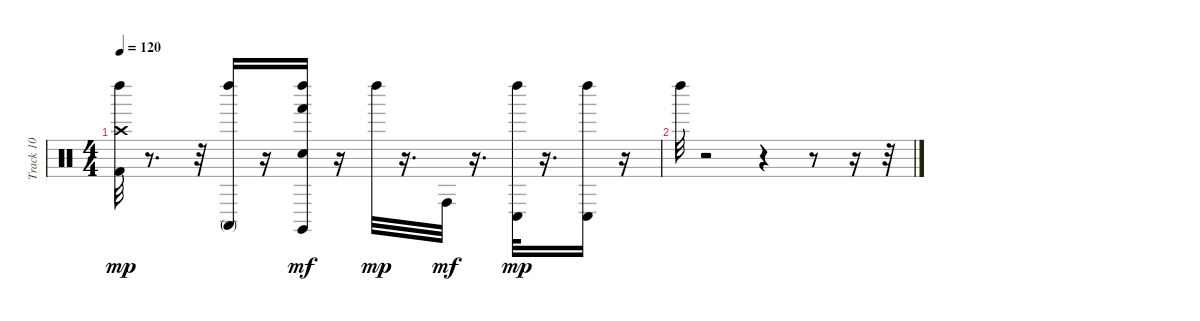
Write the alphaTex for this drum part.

\track ("Track 10" "Track 10") {instrument percussion}
\staff {score}
\articulation defaults
\ts (4 4)
\tempo 120
\clef neutral
\ks c
("Kick (hit) 2" "Crash high (hit)" "Left Maraca (hit)").32{dy mp} r.8{d} r.32 ("Conga high (mute)" "Left Maraca (hit)").16 r.16 ("Snare (hit)" "Hand (hit)" "Left Maraca (hit)" "Claves (hit)").16{dy mf} r.16 "Left Maraca (hit)".32{dy mp} r.16{d} "Conga high (hit)".32{dy mf} r.16{d} ("Conga low (hit)" "Left Maraca (hit)").32{dy mp} r.16{d} ("Conga low (hit)" "Left Maraca (hit)").16 r.16 |
"Left Maraca (hit)".32 r.2 r.4 r.8 r.16 r.32
